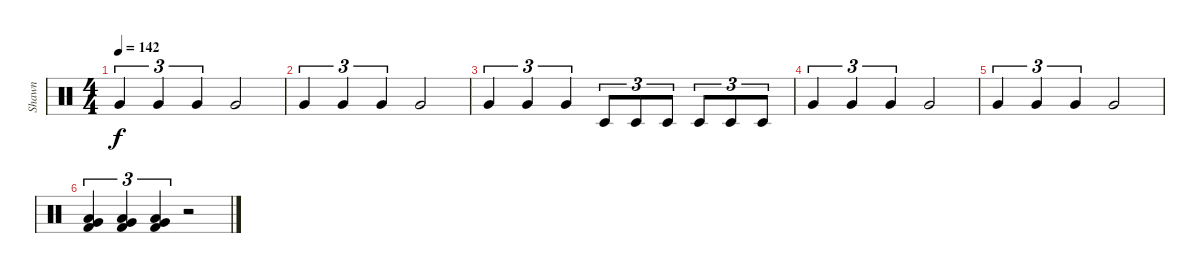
\track ("Shawn" "Shawn") {instrument percussion}
\staff {score}
\articulation defaults
\ts (4 4)
\tempo 142
\clef neutral
\ks c "Very Low Tom (hit)".4{tu (3 2) dy f} "Very Low Tom (hit)".4{tu (3 2)} "Very Low Tom (hit)".4{tu (3 2)} "Very Low Tom (hit)".2
|
"Very Low Tom (hit)".4{tu (3 2)} "Very Low Tom (hit)".4{tu (3 2)} "Very Low Tom (hit)".4{tu (3 2)} "Very Low Tom (hit)".2 |
"Very Low Tom (hit)".4{tu (3 2)} "Very Low Tom (hit)".4{tu (3 2)} "Very Low Tom (hit)".4{tu (3 2)} "Timbale low (hit)".8{tu (3 2)} "Timbale low (hit)".8{tu (3 2)} "Timbale low (hit)".8{tu (3 2)} "Timbale low (hit)".8{tu (3 2)} "Timbale low (hit)".8{tu (3 2)} "Timbale low (hit)".8{tu (3 2)} |
"Very Low Tom (hit)".4{tu (3 2)} "Very Low Tom (hit)".4{tu (3 2)} "Very Low Tom (hit)".4{tu (3 2)} "Very Low Tom (hit)".2 |
"Very Low Tom (hit)".4{tu (3 2)} "Very Low Tom (hit)".4{tu (3 2)} "Very Low Tom (hit)".4{tu (3 2)} "Very Low Tom (hit)".2 |
("Very Low Tom (hit)" "Low Floor Tom (hit)" "Kick (hit) 2").4{tu (3 2)} ("Very Low Tom (hit)" "Low Floor Tom (hit)" "Kick (hit) 2").4{tu (3 2)} ("Very Low Tom (hit)" "Low Floor Tom (hit)" "Kick (hit) 2").4{tu (3 2)} r.2
